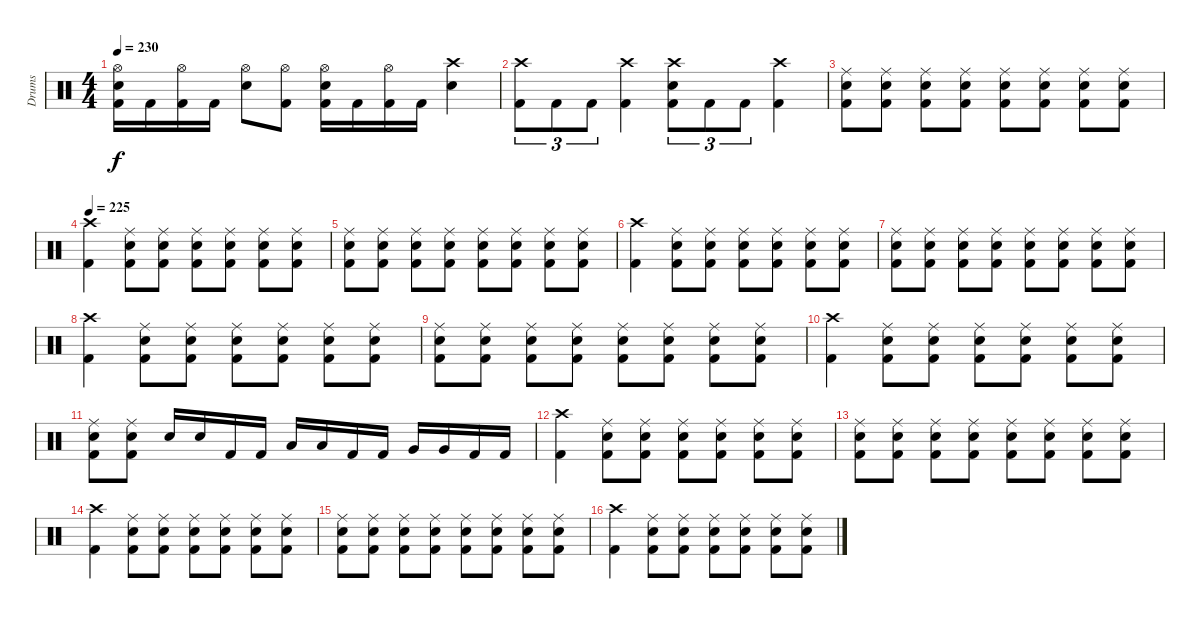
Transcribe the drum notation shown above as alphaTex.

\track ("Drums" "Drums") {instrument percussion}
\staff {score}
\articulation defaults
\ts (4 4)
\tempo 230
\clef neutral
\ks c
("Hi-Hat (open)" "Electric Snare (hit)" "Kick (hit) 2").16{dy f} "Kick (hit) 2".16 ("Hi-Hat (open)" "Kick (hit) 2").16 "Kick (hit) 2".16 ("Hi-Hat (open)" "Electric Snare (hit)").8 ("Hi-Hat (open)" "Kick (hit) 2").8 ("Hi-Hat (open)" "Electric Snare (hit)" "Kick (hit) 2").16 "Kick (hit) 2".16 ("Hi-Hat (open)" "Kick (hit) 2").16 "Kick (hit) 2".16 ("Crash high (hit)" "Electric Snare (hit)").4 |
("Crash high (hit)" "Kick (hit) 2").8{tu (3 2)} "Kick (hit) 2".8{tu (3 2)} "Kick (hit) 2".8{tu (3 2)} ("Crash high (hit)" "Kick (hit) 2").4 ("Crash high (hit)" "Electric Snare (hit)" "Kick (hit) 2").8{tu (3 2)} "Kick (hit) 2".8{tu (3 2)} "Kick (hit) 2".8{tu (3 2)} ("Crash high (hit)" "Kick (hit) 2").4 |
("Ride (middle)" "Electric Snare (hit)" "Kick (hit) 2").8 ("Ride (middle)" "Electric Snare (hit)" "Kick (hit) 2").8 ("Ride (middle)" "Electric Snare (hit)" "Kick (hit) 2").8 ("Ride (middle)" "Electric Snare (hit)" "Kick (hit) 2").8 ("Ride (middle)" "Electric Snare (hit)" "Kick (hit) 2").8 ("Ride (middle)" "Electric Snare (hit)" "Kick (hit) 2").8 ("Ride (middle)" "Electric Snare (hit)" "Kick (hit) 2").8 ("Ride (middle)" "Electric Snare (hit)" "Kick (hit) 2").8 |
\tempo 225
("Crash high (hit)" "Kick (hit) 2").4 ("Ride (middle)" "Electric Snare (hit)" "Kick (hit) 2").8 ("Ride (middle)" "Electric Snare (hit)" "Kick (hit) 2").8 ("Ride (middle)" "Electric Snare (hit)" "Kick (hit) 2").8 ("Ride (middle)" "Electric Snare (hit)" "Kick (hit) 2").8 ("Ride (middle)" "Electric Snare (hit)" "Kick (hit) 2").8 ("Ride (middle)" "Electric Snare (hit)" "Kick (hit) 2").8 |
("Ride (middle)" "Electric Snare (hit)" "Kick (hit) 2").8 ("Ride (middle)" "Electric Snare (hit)" "Kick (hit) 2").8 ("Ride (middle)" "Electric Snare (hit)" "Kick (hit) 2").8 ("Ride (middle)" "Electric Snare (hit)" "Kick (hit) 2").8 ("Ride (middle)" "Electric Snare (hit)" "Kick (hit) 2").8 ("Ride (middle)" "Electric Snare (hit)" "Kick (hit) 2").8 ("Ride (middle)" "Electric Snare (hit)" "Kick (hit) 2").8 ("Ride (middle)" "Electric Snare (hit)" "Kick (hit) 2").8 |
("Crash high (hit)" "Kick (hit) 2").4 ("Ride (middle)" "Electric Snare (hit)" "Kick (hit) 2").8 ("Ride (middle)" "Electric Snare (hit)" "Kick (hit) 2").8 ("Ride (middle)" "Electric Snare (hit)" "Kick (hit) 2").8 ("Ride (middle)" "Electric Snare (hit)" "Kick (hit) 2").8 ("Ride (middle)" "Electric Snare (hit)" "Kick (hit) 2").8 ("Ride (middle)" "Electric Snare (hit)" "Kick (hit) 2").8 |
("Ride (middle)" "Electric Snare (hit)" "Kick (hit) 2").8 ("Ride (middle)" "Electric Snare (hit)" "Kick (hit) 2").8 ("Ride (middle)" "Electric Snare (hit)" "Kick (hit) 2").8 ("Ride (middle)" "Electric Snare (hit)" "Kick (hit) 2").8 ("Ride (middle)" "Electric Snare (hit)" "Kick (hit) 2").8 ("Ride (middle)" "Electric Snare (hit)" "Kick (hit) 2").8 ("Ride (middle)" "Electric Snare (hit)" "Kick (hit) 2").8 ("Ride (middle)" "Electric Snare (hit)" "Kick (hit) 2").8 |
("Crash high (hit)" "Kick (hit) 2").4 ("Ride (middle)" "Electric Snare (hit)" "Kick (hit) 2").8 ("Ride (middle)" "Electric Snare (hit)" "Kick (hit) 2").8 ("Ride (middle)" "Electric Snare (hit)" "Kick (hit) 2").8 ("Ride (middle)" "Electric Snare (hit)" "Kick (hit) 2").8 ("Ride (middle)" "Electric Snare (hit)" "Kick (hit) 2").8 ("Ride (middle)" "Electric Snare (hit)" "Kick (hit) 2").8 |
("Ride (middle)" "Electric Snare (hit)" "Kick (hit) 2").8 ("Ride (middle)" "Electric Snare (hit)" "Kick (hit) 2").8 ("Ride (middle)" "Electric Snare (hit)" "Kick (hit) 2").8 ("Ride (middle)" "Electric Snare (hit)" "Kick (hit) 2").8 ("Ride (middle)" "Electric Snare (hit)" "Kick (hit) 2").8 ("Ride (middle)" "Electric Snare (hit)" "Kick (hit) 2").8 ("Ride (middle)" "Electric Snare (hit)" "Kick (hit) 2").8 ("Ride (middle)" "Electric Snare (hit)" "Kick (hit) 2").8 |
("Crash high (hit)" "Kick (hit) 2").4 ("Ride (middle)" "Electric Snare (hit)" "Kick (hit) 2").8 ("Ride (middle)" "Electric Snare (hit)" "Kick (hit) 2").8 ("Ride (middle)" "Electric Snare (hit)" "Kick (hit) 2").8 ("Ride (middle)" "Electric Snare (hit)" "Kick (hit) 2").8 ("Ride (middle)" "Electric Snare (hit)" "Kick (hit) 2").8 ("Ride (middle)" "Electric Snare (hit)" "Kick (hit) 2").8 |
("Ride (middle)" "Electric Snare (hit)" "Kick (hit) 2").8 ("Ride (middle)" "Electric Snare (hit)" "Kick (hit) 2").8 "Electric Snare (hit)".16 "Electric Snare (hit)".16 "Kick (hit) 2".16 "Kick (hit) 2".16 "Low Tom (hit)".16 "Low Tom (hit)".16 "Kick (hit) 2".16 "Kick (hit) 2".16 "Very Low Tom (hit)".16 "Very Low Tom (hit)".16 "Kick (hit) 2".16 "Kick (hit) 2".16 |
("Crash high (hit)" "Kick (hit) 2").4 ("Ride (middle)" "Electric Snare (hit)" "Kick (hit) 2").8 ("Ride (middle)" "Electric Snare (hit)" "Kick (hit) 2").8 ("Ride (middle)" "Electric Snare (hit)" "Kick (hit) 2").8 ("Ride (middle)" "Electric Snare (hit)" "Kick (hit) 2").8 ("Ride (middle)" "Electric Snare (hit)" "Kick (hit) 2").8 ("Ride (middle)" "Electric Snare (hit)" "Kick (hit) 2").8 |
("Ride (middle)" "Electric Snare (hit)" "Kick (hit) 2").8 ("Ride (middle)" "Electric Snare (hit)" "Kick (hit) 2").8 ("Ride (middle)" "Electric Snare (hit)" "Kick (hit) 2").8 ("Ride (middle)" "Electric Snare (hit)" "Kick (hit) 2").8 ("Ride (middle)" "Electric Snare (hit)" "Kick (hit) 2").8 ("Ride (middle)" "Electric Snare (hit)" "Kick (hit) 2").8 ("Ride (middle)" "Electric Snare (hit)" "Kick (hit) 2").8 ("Ride (middle)" "Electric Snare (hit)" "Kick (hit) 2").8 |
("Crash high (hit)" "Kick (hit) 2").4 ("Ride (middle)" "Electric Snare (hit)" "Kick (hit) 2").8 ("Ride (middle)" "Electric Snare (hit)" "Kick (hit) 2").8 ("Ride (middle)" "Electric Snare (hit)" "Kick (hit) 2").8 ("Ride (middle)" "Electric Snare (hit)" "Kick (hit) 2").8 ("Ride (middle)" "Electric Snare (hit)" "Kick (hit) 2").8 ("Ride (middle)" "Electric Snare (hit)" "Kick (hit) 2").8 |
("Ride (middle)" "Electric Snare (hit)" "Kick (hit) 2").8 ("Ride (middle)" "Electric Snare (hit)" "Kick (hit) 2").8 ("Ride (middle)" "Electric Snare (hit)" "Kick (hit) 2").8 ("Ride (middle)" "Electric Snare (hit)" "Kick (hit) 2").8 ("Ride (middle)" "Electric Snare (hit)" "Kick (hit) 2").8 ("Ride (middle)" "Electric Snare (hit)" "Kick (hit) 2").8 ("Ride (middle)" "Electric Snare (hit)" "Kick (hit) 2").8 ("Ride (middle)" "Electric Snare (hit)" "Kick (hit) 2").8 |
("Crash high (hit)" "Kick (hit) 2").4 ("Ride (middle)" "Electric Snare (hit)" "Kick (hit) 2").8 ("Ride (middle)" "Electric Snare (hit)" "Kick (hit) 2").8 ("Ride (middle)" "Electric Snare (hit)" "Kick (hit) 2").8 ("Ride (middle)" "Electric Snare (hit)" "Kick (hit) 2").8 ("Ride (middle)" "Electric Snare (hit)" "Kick (hit) 2").8 ("Ride (middle)" "Electric Snare (hit)" "Kick (hit) 2").8
